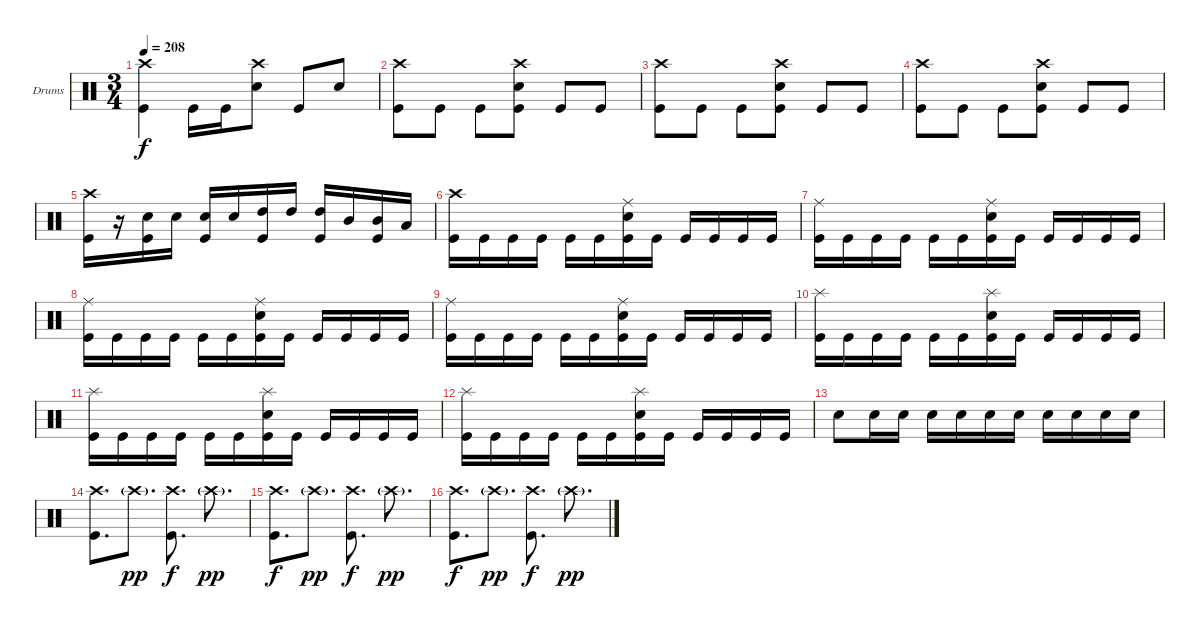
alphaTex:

\bracketExtendMode groupsimilarinstruments
\firstSystemTrackNameOrientation horizontal
\otherSystemsTrackNameOrientation horizontal
\track ("Drumkit" "Drums") {instrument percussion}
\staff {score}
\articulation defaults
\ts (3 4)
\tempo 208
\clef neutral
\ks c
("Crash high (hit)" "Kick (hit)").4{dy f} "Kick (hit)".16 "Kick (hit)".16 ("Crash high (hit)" "Snare (hit) 2").8 "Kick (hit)".8 "Snare (hit) 2".8 |
("Crash high (hit)" "Kick (hit)").8 "Kick (hit)".8 "Kick (hit)".8 ("Crash high (hit)" "Snare (hit) 2" "Kick (hit)").8 "Kick (hit)".8 "Kick (hit)".8 |
("Crash high (hit)" "Kick (hit)").8 "Kick (hit)".8 "Kick (hit)".8 ("Crash high (hit)" "Snare (hit) 2" "Kick (hit)").8 "Kick (hit)".8 "Kick (hit)".8 |
("Crash high (hit)" "Kick (hit)").8 "Kick (hit)".8 "Kick (hit)".8 ("Crash high (hit)" "Snare (hit) 2" "Kick (hit)").8 "Kick (hit)".8 "Kick (hit)".8 |
("Crash high (hit)" "Kick (hit)").16 r.16 ("Snare (hit) 2" "Kick (hit)").16 "Snare (hit) 2".16 ("Snare (hit) 2" "Kick (hit)").16 "Snare (hit) 2".16 ("High Tom (hit)" "Kick (hit)").16 "High Tom (hit)".16 ("High Tom (hit)" "Kick (hit)").16 "Mid Tom (hit)".16 ("Mid Tom (hit)" "Kick (hit)").16 "Low Tom (hit)".16 |
("Crash high (hit)" "Kick (hit)").16 "Kick (hit)".16 "Kick (hit)".16 "Kick (hit)".16 "Kick (hit)".16 "Kick (hit)".16 ("Ride (middle)" "Snare (hit) 2" "Kick (hit)").16 "Kick (hit)".16 "Kick (hit)".16 "Kick (hit)".16 "Kick (hit)".16 "Kick (hit)".16 |
("Ride (middle)" "Kick (hit)").16 "Kick (hit)".16 "Kick (hit)".16 "Kick (hit)".16 "Kick (hit)".16 "Kick (hit)".16 ("Ride (middle)" "Snare (hit) 2" "Kick (hit)").16 "Kick (hit)".16 "Kick (hit)".16 "Kick (hit)".16 "Kick (hit)".16 "Kick (hit)".16 |
("Ride (middle)" "Kick (hit)").16 "Kick (hit)".16 "Kick (hit)".16 "Kick (hit)".16 "Kick (hit)".16 "Kick (hit)".16 ("Ride (middle)" "Snare (hit) 2" "Kick (hit)").16 "Kick (hit)".16 "Kick (hit)".16 "Kick (hit)".16 "Kick (hit)".16 "Kick (hit)".16 |
("Ride (middle)" "Kick (hit)").16 "Kick (hit)".16 "Kick (hit)".16 "Kick (hit)".16 "Kick (hit)".16 "Kick (hit)".16 ("Ride (middle)" "Snare (hit) 2" "Kick (hit)").16 "Kick (hit)".16 "Kick (hit)".16 "Kick (hit)".16 "Kick (hit)".16 "Kick (hit)".16 |
("Splash (hit)" "Kick (hit)").16 "Kick (hit)".16 "Kick (hit)".16 "Kick (hit)".16 "Kick (hit)".16 "Kick (hit)".16 ("Splash (hit)" "Snare (hit) 2" "Kick (hit)").16 "Kick (hit)".16 "Kick (hit)".16 "Kick (hit)".16 "Kick (hit)".16 "Kick (hit)".16 |
("Splash (hit)" "Kick (hit)").16 "Kick (hit)".16 "Kick (hit)".16 "Kick (hit)".16 "Kick (hit)".16 "Kick (hit)".16 ("Splash (hit)" "Snare (hit) 2" "Kick (hit)").16 "Kick (hit)".16 "Kick (hit)".16 "Kick (hit)".16 "Kick (hit)".16 "Kick (hit)".16 |
("Splash (hit)" "Kick (hit)").16 "Kick (hit)".16 "Kick (hit)".16 "Kick (hit)".16 "Kick (hit)".16 "Kick (hit)".16 ("Splash (hit)" "Snare (hit) 2" "Kick (hit)").16 "Kick (hit)".16 "Kick (hit)".16 "Kick (hit)".16 "Kick (hit)".16 "Kick (hit)".16 |
"Snare (hit) 2".8 "Snare (hit) 2".16 "Snare (hit) 2".16 "Snare (hit) 2".16 "Snare (hit) 2".16 "Snare (hit) 2".16 "Snare (hit) 2".16 "Snare (hit) 2".16 "Snare (hit) 2".16 "Snare (hit) 2".16 "Snare (hit) 2".16 |
("Crash high (hit)" "Kick (hit)").8{d} "Crash high (hit)"{g}.8{d dy pp} ("Crash high (hit)" "Kick (hit)").8{d dy f} "Crash high (hit)"{g}.8{d dy pp} |
("Crash high (hit)" "Kick (hit)").8{d dy f} "Crash high (hit)"{g}.8{d dy pp} ("Crash high (hit)" "Kick (hit)").8{d dy f} "Crash high (hit)"{g}.8{d dy pp} |
("Crash high (hit)" "Kick (hit)").8{d dy f} "Crash high (hit)"{g}.8{d dy pp} ("Crash high (hit)" "Kick (hit)").8{d dy f} "Crash high (hit)"{g}.8{d dy pp}
